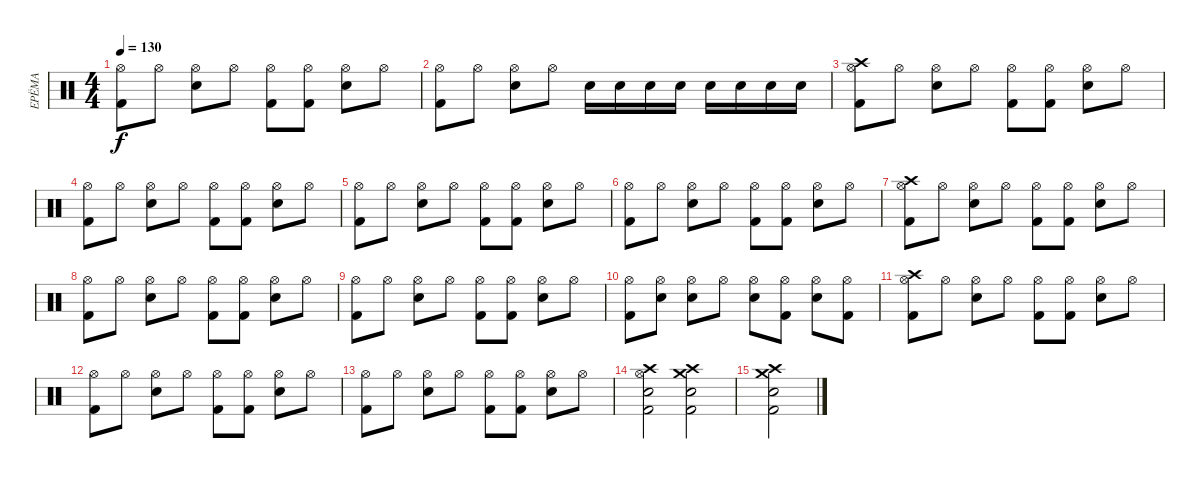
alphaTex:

\track ("ЕРЁМА" "ЕРЁМА") {instrument percussion}
\staff {score}
\articulation defaults
\ts (4 4)
\tempo 130
\clef neutral
\ks c
("Hi-Hat (open)" "Kick (hit) 2").8{dy f} "Hi-Hat (open)".8 ("Hi-Hat (open)" "Electric Snare (hit)").8 "Hi-Hat (open)".8 ("Hi-Hat (open)" "Kick (hit) 2").8 ("Hi-Hat (open)" "Kick (hit) 2").8 ("Hi-Hat (open)" "Electric Snare (hit)").8 "Hi-Hat (open)".8 |
("Hi-Hat (open)" "Kick (hit) 2").8 "Hi-Hat (open)".8 ("Hi-Hat (open)" "Electric Snare (hit)").8 "Hi-Hat (open)".8 "Electric Snare (hit)".16 "Electric Snare (hit)".16 "Electric Snare (hit)".16 "Electric Snare (hit)".16 "Electric Snare (hit)".16 "Electric Snare (hit)".16 "Electric Snare (hit)".16 "Electric Snare (hit)".16 |
("Hi-Hat (open)" "Kick (hit) 2" "Crash high (hit)").8 "Hi-Hat (open)".8 ("Hi-Hat (open)" "Electric Snare (hit)").8 "Hi-Hat (open)".8 ("Hi-Hat (open)" "Kick (hit) 2").8 ("Hi-Hat (open)" "Kick (hit) 2").8 ("Hi-Hat (open)" "Electric Snare (hit)").8 "Hi-Hat (open)".8 |
("Hi-Hat (open)" "Kick (hit) 2").8 "Hi-Hat (open)".8 ("Hi-Hat (open)" "Electric Snare (hit)").8 "Hi-Hat (open)".8 ("Hi-Hat (open)" "Kick (hit) 2").8 ("Hi-Hat (open)" "Kick (hit) 2").8 ("Hi-Hat (open)" "Electric Snare (hit)").8 "Hi-Hat (open)".8 |
("Hi-Hat (open)" "Kick (hit) 2").8 "Hi-Hat (open)".8 ("Hi-Hat (open)" "Electric Snare (hit)").8 "Hi-Hat (open)".8 ("Hi-Hat (open)" "Kick (hit) 2").8 ("Hi-Hat (open)" "Kick (hit) 2").8 ("Hi-Hat (open)" "Electric Snare (hit)").8 "Hi-Hat (open)".8 |
("Hi-Hat (open)" "Kick (hit) 2").8 "Hi-Hat (open)".8 ("Hi-Hat (open)" "Electric Snare (hit)").8 "Hi-Hat (open)".8 ("Hi-Hat (open)" "Kick (hit) 2").8 ("Hi-Hat (open)" "Kick (hit) 2").8 ("Hi-Hat (open)" "Electric Snare (hit)").8 "Hi-Hat (open)".8 |
("Hi-Hat (open)" "Kick (hit) 2" "Crash high (hit)").8 "Hi-Hat (open)".8 ("Hi-Hat (open)" "Electric Snare (hit)").8 "Hi-Hat (open)".8 ("Hi-Hat (open)" "Kick (hit) 2").8 ("Hi-Hat (open)" "Kick (hit) 2").8 ("Hi-Hat (open)" "Electric Snare (hit)").8 "Hi-Hat (open)".8 |
("Hi-Hat (open)" "Kick (hit) 2").8 "Hi-Hat (open)".8 ("Hi-Hat (open)" "Electric Snare (hit)").8 "Hi-Hat (open)".8 ("Hi-Hat (open)" "Kick (hit) 2").8 ("Hi-Hat (open)" "Kick (hit) 2").8 ("Hi-Hat (open)" "Electric Snare (hit)").8 "Hi-Hat (open)".8 |
("Hi-Hat (open)" "Kick (hit) 2").8 "Hi-Hat (open)".8 ("Hi-Hat (open)" "Electric Snare (hit)").8 "Hi-Hat (open)".8 ("Hi-Hat (open)" "Kick (hit) 2").8 ("Hi-Hat (open)" "Kick (hit) 2").8 ("Hi-Hat (open)" "Electric Snare (hit)").8 "Hi-Hat (open)".8 |
("Hi-Hat (open)" "Kick (hit) 2").8 ("Hi-Hat (open)" "Electric Snare (hit)").8 ("Hi-Hat (open)" "Electric Snare (hit)").8 "Hi-Hat (open)".8 ("Hi-Hat (open)" "Electric Snare (hit)").8 ("Hi-Hat (open)" "Kick (hit) 2").8 ("Hi-Hat (open)" "Electric Snare (hit)").8 ("Hi-Hat (open)" "Kick (hit) 2").8 |
("Hi-Hat (open)" "Kick (hit) 2" "Crash high (hit)").8 "Hi-Hat (open)".8 ("Hi-Hat (open)" "Electric Snare (hit)").8 "Hi-Hat (open)".8 ("Hi-Hat (open)" "Kick (hit) 2").8 ("Hi-Hat (open)" "Kick (hit) 2").8 ("Hi-Hat (open)" "Electric Snare (hit)").8 "Hi-Hat (open)".8 |
("Hi-Hat (open)" "Kick (hit) 2").8 "Hi-Hat (open)".8 ("Hi-Hat (open)" "Electric Snare (hit)").8 "Hi-Hat (open)".8 ("Hi-Hat (open)" "Kick (hit) 2").8 ("Hi-Hat (open)" "Kick (hit) 2").8 ("Hi-Hat (open)" "Electric Snare (hit)").8 "Hi-Hat (open)".8 |
("Hi-Hat (open)" "Kick (hit) 2").8 "Hi-Hat (open)".8 ("Hi-Hat (open)" "Electric Snare (hit)").8 "Hi-Hat (open)".8 ("Hi-Hat (open)" "Kick (hit) 2").8 ("Hi-Hat (open)" "Kick (hit) 2").8 ("Hi-Hat (open)" "Electric Snare (hit)").8 "Hi-Hat (open)".8 |
("Hi-Hat (open)" "Electric Snare (hit)" "Crash high (hit)" "Kick (hit) 2").2 ("Crash medium (hit)" "Electric Snare (hit)" "Crash high (hit)" "Kick (hit) 2").2 |
("Crash medium (hit)" "Electric Snare (hit)" "Kick (hit) 2" "Crash high (hit)").2
